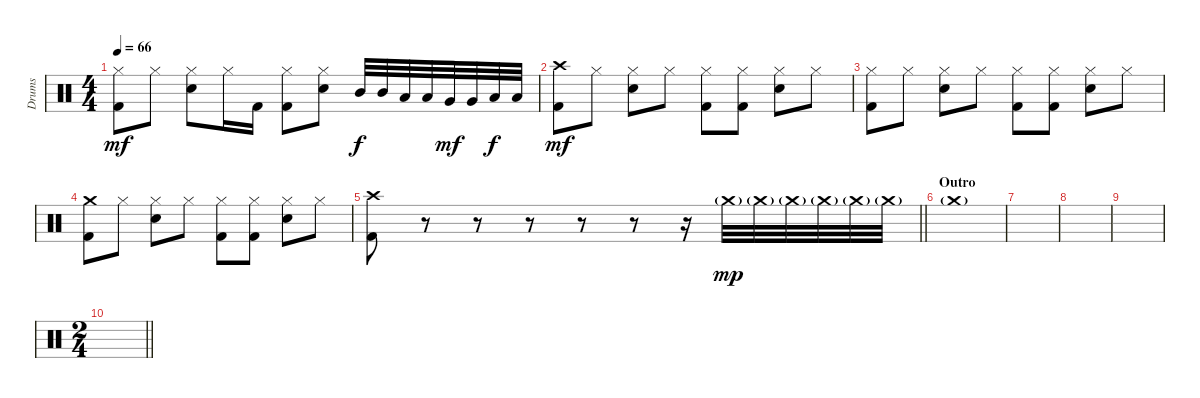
\track ("Drums" "Drums") {instrument percussion}
\staff {score}
\articulation defaults
\ts (4 4)
\tempo 66
\clef neutral
\ks c
("Hi-Hat (closed)" "Kick (hit) 2").8{dy mf} "Hi-Hat (closed)".8 ("Hi-Hat (closed)" "Snare (hit) 2").8 "Hi-Hat (closed)".16 "Kick (hit) 2".16 ("Hi-Hat (closed)" "Kick (hit) 2").8 ("Hi-Hat (closed)" "Snare (hit) 2").8 "Mid Tom (hit)".32{dy f} "Mid Tom (hit)".32 "Low Tom (hit)".32 "Low Tom (hit)".32 "Very Low Tom (hit)".32{dy mf} "Very Low Tom (hit)".32 "Low Floor Tom (hit)".32{dy f} "Low Floor Tom (hit)".32 |
("Crash high (hit)" "Kick (hit) 2").8{dy mf} "Hi-Hat (closed)".8 ("Hi-Hat (closed)" "Snare (hit) 2").8 "Hi-Hat (closed)".8 ("Hi-Hat (closed)" "Kick (hit) 2").8 ("Hi-Hat (closed)" "Kick (hit) 2").8 ("Hi-Hat (closed)" "Snare (hit) 2").8 "Hi-Hat (closed)".8 |
("Hi-Hat (closed)" "Kick (hit) 2").8 "Hi-Hat (closed)".8 ("Hi-Hat (closed)" "Snare (hit) 2").8 "Hi-Hat (closed)".8 ("Hi-Hat (closed)" "Kick (hit) 2").8 ("Hi-Hat (closed)" "Kick (hit) 2").8 ("Hi-Hat (closed)" "Snare (hit) 2").8 "Hi-Hat (closed)".8 |
("Crash medium (hit)" "Kick (hit) 2").8 "Hi-Hat (closed)".8 ("Hi-Hat (closed)" "Snare (hit) 2").8 "Hi-Hat (closed)".8 ("Hi-Hat (closed)" "Kick (hit) 2").8 ("Hi-Hat (closed)" "Kick (hit) 2").8 ("Hi-Hat (closed)" "Snare (hit) 2").8 "Hi-Hat (closed)".8 |
\barLineRight lightlight
("Crash high (hit)" "Kick (hit) 2").8 r.8 r.8 r.8 r.8 r.8 r.16 "Crash medium (hit)"{g}.32{dy mp} "Crash medium (hit)"{g}.32 "Crash medium (hit)"{g}.32 "Crash medium (hit)"{g}.32 "Crash medium (hit)"{g}.32 "Crash medium (hit)"{g}.32 |
\section ("" "Outro")
"Crash medium (hit)"{g}.1 |
|
|
|
\ts (2 4)
\barLineRight lightlight
